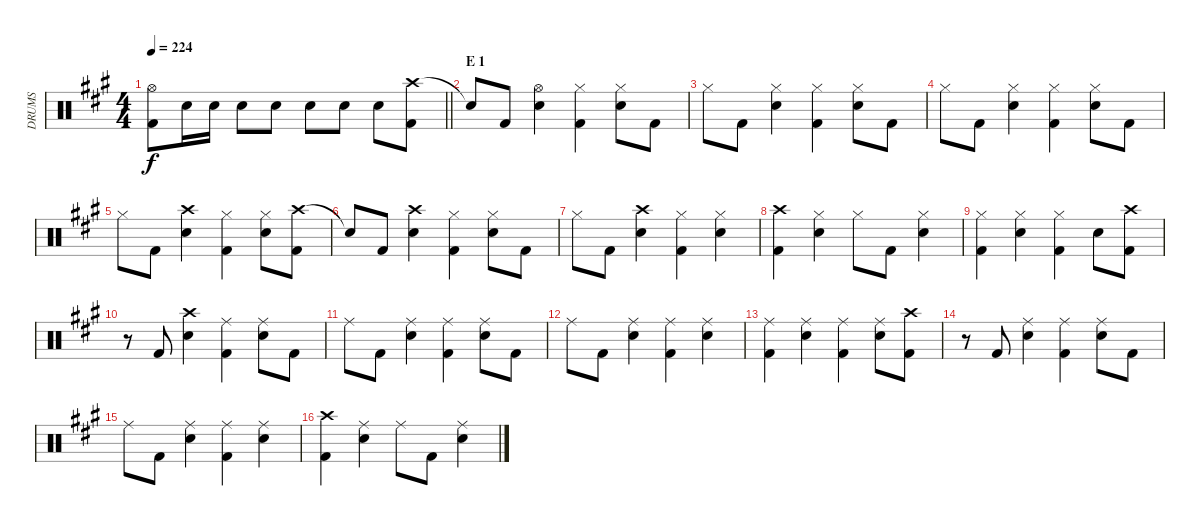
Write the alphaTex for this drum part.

\track ("DRUMS" "DRUMS") {instrument percussion}
\staff {score}
\articulation defaults
\ts (4 4)
\tempo 224
\clef neutral
\barLineRight lightlight
\ks a
("Hi-Hat (open)" "Kick (hit) 2").8{dy f} "Snare (hit) 2".16 "Snare (hit) 2".16 "Snare (hit) 2".8 "Snare (hit) 2".8 "Snare (hit) 2".8 "Snare (hit) 2".8 "Snare (hit) 2".8 ("Crash high (hit)" "Kick (hit) 2").8 |
\section ("" "E 1")
"Snare (hit)"{t}.8 "Kick (hit) 2".8 ("Hi-Hat (open)" "Snare (hit) 2").4 ("Hi-Hat (closed)" "Kick (hit) 2").4 ("Hi-Hat (closed)" "Snare (hit) 2").8 "Kick (hit) 2".8 |
"Hi-Hat (closed)".8 "Kick (hit) 2".8 ("Hi-Hat (closed)" "Snare (hit) 2").4 ("Hi-Hat (closed)" "Kick (hit) 2").4 ("Hi-Hat (closed)" "Snare (hit) 2").8 "Kick (hit) 2".8 |
"Hi-Hat (closed)".8 "Kick (hit) 2".8 ("Hi-Hat (closed)" "Snare (hit) 2").4 ("Hi-Hat (closed)" "Kick (hit) 2").4 ("Hi-Hat (closed)" "Snare (hit) 2").8 "Kick (hit) 2".8 |
"Hi-Hat (closed)".8 "Kick (hit) 2".8 ("Crash high (hit)" "Snare (hit) 2").4 ("Hi-Hat (closed)" "Kick (hit) 2").4 ("Hi-Hat (closed)" "Snare (hit) 2").8 ("Crash high (hit)" "Kick (hit) 2").8 |
"Snare (hit)"{t}.8 "Kick (hit) 2".8 ("Crash high (hit)" "Snare (hit) 2").4 ("Hi-Hat (closed)" "Kick (hit) 2").4 ("Hi-Hat (closed)" "Snare (hit) 2").8 "Kick (hit) 2".8 |
"Hi-Hat (closed)".8 "Kick (hit) 2".8 ("Crash high (hit)" "Snare (hit) 2").4 ("Hi-Hat (closed)" "Kick (hit) 2").4 ("Hi-Hat (closed)" "Snare (hit) 2").4 |
("Crash high (hit)" "Kick (hit) 2").4 ("Hi-Hat (closed)" "Snare (hit) 2").4 "Hi-Hat (closed)".8 "Kick (hit) 2".8 ("Hi-Hat (closed)" "Snare (hit) 2").4 |
("Hi-Hat (closed)" "Kick (hit) 2").4 ("Hi-Hat (closed)" "Snare (hit) 2").4 ("Hi-Hat (closed)" "Kick (hit) 2").4 "Snare (hit) 2".8 ("Crash high (hit)" "Kick (hit) 2").8 |
r.8 "Kick (hit) 2".8 ("Crash high (hit)" "Snare (hit) 2").4 ("Ride (middle)" "Kick (hit) 2").4 ("Ride (middle)" "Snare (hit) 2").8 "Kick (hit) 2".8 |
"Ride (middle)".8 "Kick (hit) 2".8 ("Ride (middle)" "Snare (hit) 2").4 ("Ride (middle)" "Kick (hit) 2").4 ("Ride (middle)" "Snare (hit) 2").8 "Kick (hit) 2".8 |
"Ride (middle)".8 "Kick (hit) 2".8 ("Ride (middle)" "Snare (hit) 2").4 ("Ride (middle)" "Kick (hit) 2").4 ("Ride (middle)" "Snare (hit) 2").4 |
("Ride (middle)" "Kick (hit) 2").4 ("Ride (middle)" "Snare (hit) 2").4 ("Ride (middle)" "Kick (hit) 2").4 ("Ride (middle)" "Snare (hit) 2").8 ("Crash high (hit)" "Kick (hit) 2").8 |
r.8 "Kick (hit) 2".8 ("Ride (middle)" "Snare (hit) 2").4 ("Ride (middle)" "Kick (hit) 2").4 ("Ride (middle)" "Snare (hit) 2").8 "Kick (hit) 2".8 |
"Ride (middle)".8 "Kick (hit) 2".8 ("Ride (middle)" "Snare (hit) 2").4 ("Ride (middle)" "Kick (hit) 2").4 ("Ride (middle)" "Snare (hit) 2").4 |
("Crash high (hit)" "Kick (hit) 2").4 ("Ride (middle)" "Snare (hit) 2").4 "Ride (middle)".8 "Kick (hit) 2".8 ("Ride (middle)" "Snare (hit) 2").4
